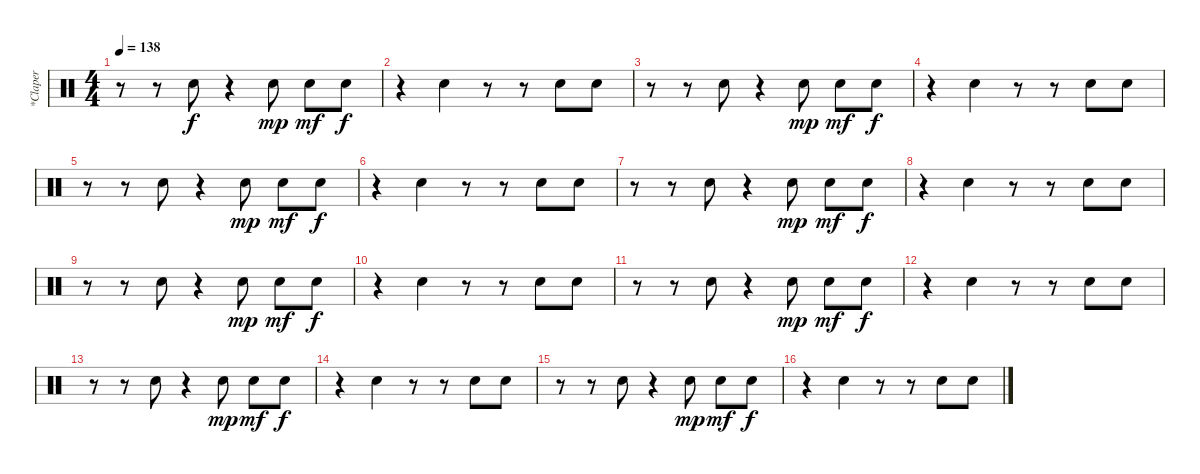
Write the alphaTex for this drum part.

\track ("*Claper" "*Claper") {instrument percussion}
\staff {score}
\articulation defaults
\ts (4 4)
\tempo 138
\clef neutral
\ks c
r.8{dy f} r.8 "Hand Clap (hit)".8 r.4 "Hand Clap (hit)".8{dy mp} "Hand Clap (hit)".8{dy mf} "Hand Clap (hit)".8{dy f} |
r.4 "Hand Clap (hit)".4 r.8 r.8 "Hand Clap (hit)".8 "Hand Clap (hit)".8 |
r.8 r.8 "Hand Clap (hit)".8 r.4 "Hand Clap (hit)".8{dy mp} "Hand Clap (hit)".8{dy mf} "Hand Clap (hit)".8{dy f} |
r.4 "Hand Clap (hit)".4 r.8 r.8 "Hand Clap (hit)".8 "Hand Clap (hit)".8 |
r.8 r.8 "Hand Clap (hit)".8 r.4 "Hand Clap (hit)".8{dy mp} "Hand Clap (hit)".8{dy mf} "Hand Clap (hit)".8{dy f} |
r.4 "Hand Clap (hit)".4 r.8 r.8 "Hand Clap (hit)".8 "Hand Clap (hit)".8 |
r.8 r.8 "Hand Clap (hit)".8 r.4 "Hand Clap (hit)".8{dy mp} "Hand Clap (hit)".8{dy mf} "Hand Clap (hit)".8{dy f} |
r.4 "Hand Clap (hit)".4 r.8 r.8 "Hand Clap (hit)".8 "Hand Clap (hit)".8 |
r.8 r.8 "Hand Clap (hit)".8 r.4 "Hand Clap (hit)".8{dy mp} "Hand Clap (hit)".8{dy mf} "Hand Clap (hit)".8{dy f} |
r.4 "Hand Clap (hit)".4 r.8 r.8 "Hand Clap (hit)".8 "Hand Clap (hit)".8 |
r.8 r.8 "Hand Clap (hit)".8 r.4 "Hand Clap (hit)".8{dy mp} "Hand Clap (hit)".8{dy mf} "Hand Clap (hit)".8{dy f} |
r.4 "Hand Clap (hit)".4 r.8 r.8 "Hand Clap (hit)".8 "Hand Clap (hit)".8 |
r.8 r.8 "Hand Clap (hit)".8 r.4 "Hand Clap (hit)".8{dy mp} "Hand Clap (hit)".8{dy mf} "Hand Clap (hit)".8{dy f} |
r.4 "Hand Clap (hit)".4 r.8 r.8 "Hand Clap (hit)".8 "Hand Clap (hit)".8 |
r.8 r.8 "Hand Clap (hit)".8 r.4 "Hand Clap (hit)".8{dy mp} "Hand Clap (hit)".8{dy mf} "Hand Clap (hit)".8{dy f} |
r.4 "Hand Clap (hit)".4 r.8 r.8 "Hand Clap (hit)".8 "Hand Clap (hit)".8
